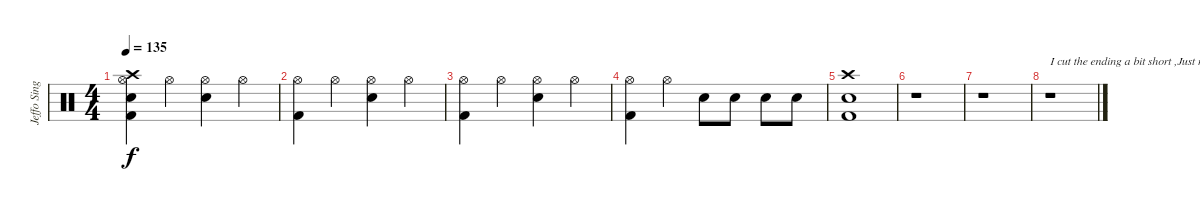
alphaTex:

\track ("Jeffo Singer" "Jeffo Sing") {instrument percussion}
\staff {score}
\articulation defaults
\ts (4 4)
\tempo 135
\clef neutral
\ks c
("Hi-Hat (open)" "Kick (hit) 2" "Snare (hit) 2" "Crash high (hit)").4{dy f} "Hi-Hat (open)".4 ("Hi-Hat (open)" "Snare (hit) 2").4 "Hi-Hat (open)".4 |
("Hi-Hat (open)" "Kick (hit) 2").4 "Hi-Hat (open)".4 ("Hi-Hat (open)" "Snare (hit) 2").4 "Hi-Hat (open)".4 |
("Hi-Hat (open)" "Kick (hit) 2").4 "Hi-Hat (open)".4 ("Hi-Hat (open)" "Snare (hit) 2").4 "Hi-Hat (open)".4 |
("Hi-Hat (open)" "Kick (hit) 2").4 "Hi-Hat (open)".4 "Snare (hit) 2".8 "Snare (hit) 2".8 "Snare (hit) 2".8 "Snare (hit) 2".8 |
("Snare (hit) 2" "Kick (hit) 2" "Crash high (hit)").1 |
r.1 |
r.1 |
r.1{txt "I cut the ending a bit short ,Just repeat"}
